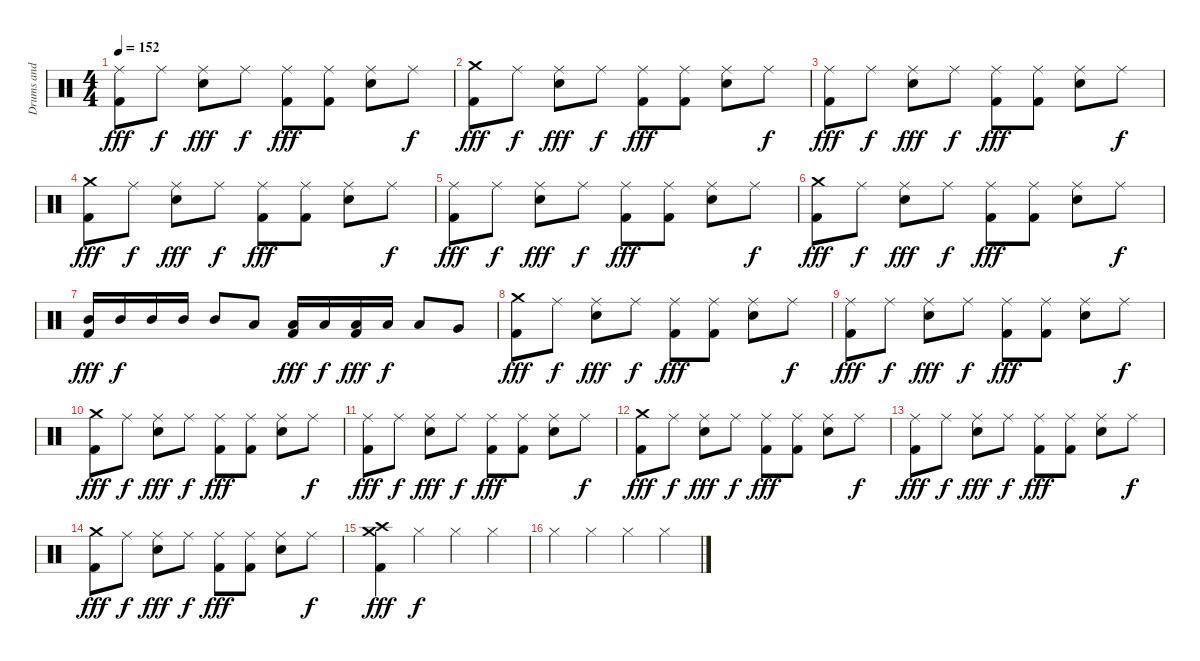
\track ("Drums and Percussion" "Drums and ") {instrument percussion}
\staff {score}
\articulation defaults
\ts (4 4)
\tempo 152
\clef neutral
\ks c
("Ride (middle)" "Kick (hit) 2").8{dy fff} "Ride (middle)".8{dy f} ("Ride (middle)" "Snare (hit) 2").8{dy fff} "Ride (middle)".8{dy f} ("Ride (middle)" "Kick (hit) 2").8{dy fff} ("Ride (middle)" "Kick (hit) 2").8 ("Ride (middle)" "Snare (hit) 2").8 "Ride (middle)".8{dy f} |
("Crash medium (hit)" "Kick (hit) 2").8{dy fff} "Ride (middle)".8{dy f} ("Ride (middle)" "Snare (hit) 2").8{dy fff} "Ride (middle)".8{dy f} ("Ride (middle)" "Kick (hit) 2").8{dy fff} ("Ride (middle)" "Kick (hit) 2").8 ("Ride (middle)" "Snare (hit) 2").8 "Ride (middle)".8{dy f} |
("Ride (middle)" "Kick (hit) 2").8{dy fff} "Ride (middle)".8{dy f} ("Ride (middle)" "Snare (hit) 2").8{dy fff} "Ride (middle)".8{dy f} ("Ride (middle)" "Kick (hit) 2").8{dy fff} ("Ride (middle)" "Kick (hit) 2").8 ("Ride (middle)" "Snare (hit) 2").8 "Ride (middle)".8{dy f} |
("Crash medium (hit)" "Kick (hit) 2").8{dy fff} "Ride (middle)".8{dy f} ("Ride (middle)" "Snare (hit) 2").8{dy fff} "Ride (middle)".8{dy f} ("Ride (middle)" "Kick (hit) 2").8{dy fff} ("Ride (middle)" "Kick (hit) 2").8 ("Ride (middle)" "Snare (hit) 2").8 "Ride (middle)".8{dy f} |
("Ride (middle)" "Kick (hit) 2").8{dy fff} "Ride (middle)".8{dy f} ("Ride (middle)" "Snare (hit) 2").8{dy fff} "Ride (middle)".8{dy f} ("Ride (middle)" "Kick (hit) 2").8{dy fff} ("Ride (middle)" "Kick (hit) 2").8 ("Ride (middle)" "Snare (hit) 2").8 "Ride (middle)".8{dy f} |
("Crash medium (hit)" "Kick (hit) 2").8{dy fff} "Ride (middle)".8{dy f} ("Ride (middle)" "Snare (hit) 2").8{dy fff} "Ride (middle)".8{dy f} ("Ride (middle)" "Kick (hit) 2").8{dy fff} ("Ride (middle)" "Kick (hit) 2").8 ("Ride (middle)" "Snare (hit) 2").8 "Ride (middle)".8{dy f} |
("Mid Tom (hit)" "Kick (hit) 2").16{dy fff} "Mid Tom (hit)".16{dy f} "Mid Tom (hit)".16 "Mid Tom (hit)".16 "Mid Tom (hit)".8 "Low Tom (hit)".8 ("Low Tom (hit)" "Kick (hit) 2").16{dy fff} "Low Tom (hit)".16{dy f} ("Low Tom (hit)" "Kick (hit) 2").16{dy fff} "Low Tom (hit)".16{dy f} "Low Tom (hit)".8 "Very Low Tom (hit)".8 |
("Crash medium (hit)" "Kick (hit) 2").8{dy fff} "Ride (middle)".8{dy f} ("Ride (middle)" "Snare (hit) 2").8{dy fff} "Ride (middle)".8{dy f} ("Ride (middle)" "Kick (hit) 2").8{dy fff} ("Ride (middle)" "Kick (hit) 2").8 ("Ride (middle)" "Snare (hit) 2").8 "Ride (middle)".8{dy f} |
("Ride (middle)" "Kick (hit) 2").8{dy fff} "Ride (middle)".8{dy f} ("Ride (middle)" "Snare (hit) 2").8{dy fff} "Ride (middle)".8{dy f} ("Ride (middle)" "Kick (hit) 2").8{dy fff} ("Ride (middle)" "Kick (hit) 2").8 ("Ride (middle)" "Snare (hit) 2").8 "Ride (middle)".8{dy f} |
("Crash medium (hit)" "Kick (hit) 2").8{dy fff} "Ride (middle)".8{dy f} ("Ride (middle)" "Snare (hit) 2").8{dy fff} "Ride (middle)".8{dy f} ("Ride (middle)" "Kick (hit) 2").8{dy fff} ("Ride (middle)" "Kick (hit) 2").8 ("Ride (middle)" "Snare (hit) 2").8 "Ride (middle)".8{dy f} |
("Ride (middle)" "Kick (hit) 2").8{dy fff} "Ride (middle)".8{dy f} ("Ride (middle)" "Snare (hit) 2").8{dy fff} "Ride (middle)".8{dy f} ("Ride (middle)" "Kick (hit) 2").8{dy fff} ("Ride (middle)" "Kick (hit) 2").8 ("Ride (middle)" "Snare (hit) 2").8 "Ride (middle)".8{dy f} |
("Crash medium (hit)" "Kick (hit) 2").8{dy fff} "Ride (middle)".8{dy f} ("Ride (middle)" "Snare (hit) 2").8{dy fff} "Ride (middle)".8{dy f} ("Ride (middle)" "Kick (hit) 2").8{dy fff} ("Ride (middle)" "Kick (hit) 2").8 ("Ride (middle)" "Snare (hit) 2").8 "Ride (middle)".8{dy f} |
("Ride (middle)" "Kick (hit) 2").8{dy fff} "Ride (middle)".8{dy f} ("Ride (middle)" "Snare (hit) 2").8{dy fff} "Ride (middle)".8{dy f} ("Ride (middle)" "Kick (hit) 2").8{dy fff} ("Ride (middle)" "Kick (hit) 2").8 ("Ride (middle)" "Snare (hit) 2").8 "Ride (middle)".8{dy f} |
("Crash medium (hit)" "Kick (hit) 2").8{dy fff} "Ride (middle)".8{dy f} ("Ride (middle)" "Snare (hit) 2").8{dy fff} "Ride (middle)".8{dy f} ("Ride (middle)" "Kick (hit) 2").8{dy fff} ("Ride (middle)" "Kick (hit) 2").8 ("Ride (middle)" "Snare (hit) 2").8 "Ride (middle)".8{dy f} |
("Crash medium (hit)" "Crash high (hit)" "Kick (hit) 2").4{dy fff} "Hi-Hat (closed)".4{dy f} "Hi-Hat (closed)".4 "Hi-Hat (closed)".4 |
"Hi-Hat (closed)".4 "Hi-Hat (closed)".4 "Hi-Hat (closed)".4 "Hi-Hat (closed)".4
